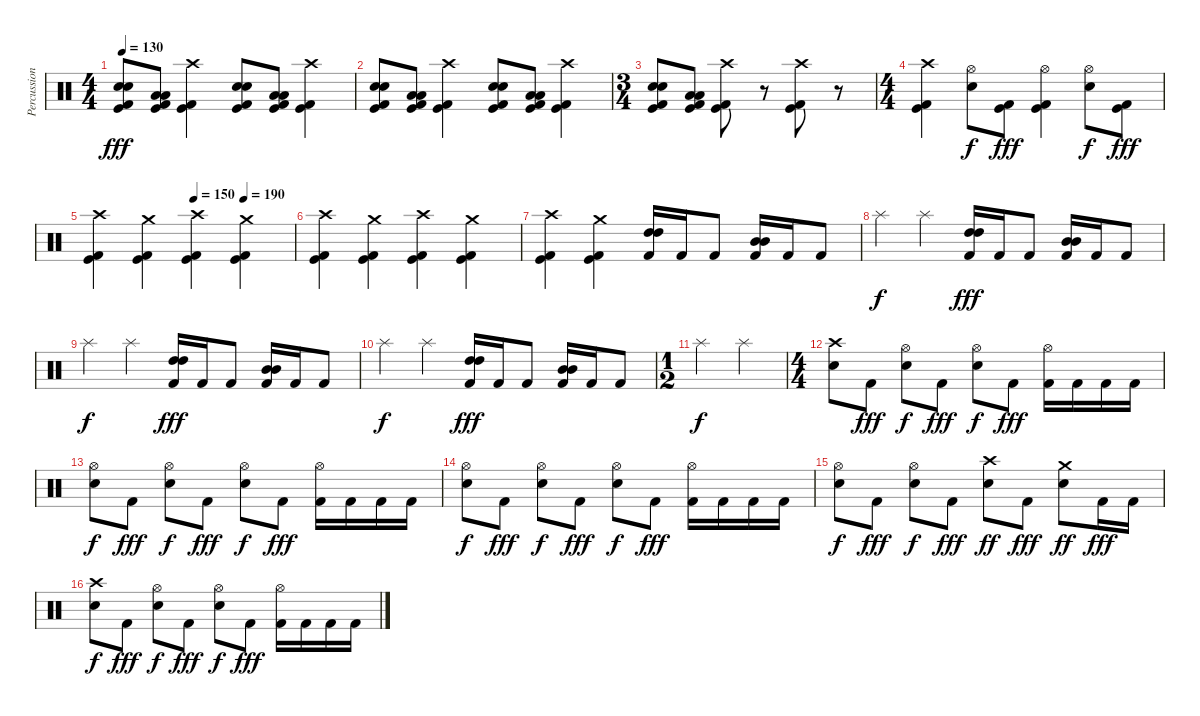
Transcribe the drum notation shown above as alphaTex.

\track ("Percussion" "Percussion") {instrument percussion}
\staff {score}
\articulation defaults
\ts (4 4)
\tempo 130
\clef neutral
\ks c
("Snare (hit) 2" "Snare (hit) 2" "Kick (hit)" "Kick (hit) 2").8{dy fff} ("Low Tom (hit)" "Low Tom (hit)" "Kick (hit)" "Kick (hit) 2").8 ("Crash high (hit)" "Kick (hit)" "Kick (hit) 2").4 ("Snare (hit) 2" "Snare (hit) 2" "Kick (hit)" "Kick (hit) 2").8 ("Low Tom (hit)" "Low Tom (hit)" "Kick (hit)" "Kick (hit) 2").8 ("Crash high (hit)" "Kick (hit)" "Kick (hit) 2").4 |
("Snare (hit) 2" "Snare (hit) 2" "Kick (hit)" "Kick (hit) 2").8 ("Low Tom (hit)" "Low Tom (hit)" "Kick (hit)" "Kick (hit) 2").8 ("Crash high (hit)" "Kick (hit)" "Kick (hit) 2").4 ("Snare (hit) 2" "Snare (hit) 2" "Kick (hit)" "Kick (hit) 2").8 ("Low Tom (hit)" "Low Tom (hit)" "Kick (hit)" "Kick (hit) 2").8 ("Crash high (hit)" "Kick (hit)" "Kick (hit) 2").4 |
\ts (3 4)
("Snare (hit) 2" "Snare (hit) 2" "Kick (hit)" "Kick (hit) 2").8 ("Low Tom (hit)" "Low Tom (hit)" "Kick (hit)" "Kick (hit) 2").8 ("Crash high (hit)" "Kick (hit)" "Kick (hit) 2").8 r.8 ("Crash high (hit)" "Kick (hit) 2" "Kick (hit)").8 r.8 |
\ts (4 4)
("Crash high (hit)" "Kick (hit)" "Kick (hit) 2").4 ("Hi-Hat (open)" "Snare (hit) 2").8{dy f} ("Kick (hit)" "Kick (hit) 2").8{dy fff} ("Hi-Hat (open)" "Kick (hit)" "Kick (hit) 2").4 ("Hi-Hat (open)" "Snare (hit) 2").8{dy f} ("Kick (hit)" "Kick (hit) 2").8{dy fff} |
\tempo (150 0.5)
\tempo (190 0.75)
("Crash high (hit)" "Kick (hit)" "Kick (hit) 2").4 ("Crash medium (hit)" "Kick (hit)" "Kick (hit) 2").4 ("Crash high (hit)" "Kick (hit)" "Kick (hit) 2").4 ("Crash medium (hit)" "Kick (hit)" "Kick (hit) 2").4 |
("Crash high (hit)" "Kick (hit)" "Kick (hit) 2").4 ("Crash medium (hit)" "Kick (hit)" "Kick (hit) 2").4 ("Crash high (hit)" "Kick (hit)" "Kick (hit) 2").4 ("Crash medium (hit)" "Kick (hit)" "Kick (hit) 2").4 |
("Crash high (hit)" "Kick (hit)" "Kick (hit) 2").4 ("Crash medium (hit)" "Kick (hit)" "Kick (hit) 2").4 ("High Tom (hit)" "High Tom (hit)" "Kick (hit) 2").16 "Kick (hit) 2".16 "Kick (hit) 2".8 ("Mid Tom (hit)" "Mid Tom (hit)" "Kick (hit) 2").16 "Kick (hit) 2".16 "Kick (hit) 2".8 |
"Splash (hit)".4{dy f} "Splash (hit)".4 ("High Tom (hit)" "High Tom (hit)" "Kick (hit) 2").16{dy fff} "Kick (hit) 2".16 "Kick (hit) 2".8 ("Mid Tom (hit)" "Mid Tom (hit)" "Kick (hit) 2").16 "Kick (hit) 2".16 "Kick (hit) 2".8 |
"Splash (hit)".4{dy f} "Splash (hit)".4 ("High Tom (hit)" "High Tom (hit)" "Kick (hit) 2").16{dy fff} "Kick (hit) 2".16 "Kick (hit) 2".8 ("Mid Tom (hit)" "Mid Tom (hit)" "Kick (hit) 2").16 "Kick (hit) 2".16 "Kick (hit) 2".8 |
"Splash (hit)".4{dy f} "Splash (hit)".4 ("High Tom (hit)" "High Tom (hit)" "Kick (hit) 2").16{dy fff} "Kick (hit) 2".16 "Kick (hit) 2".8 ("Mid Tom (hit)" "Mid Tom (hit)" "Kick (hit) 2").16 "Kick (hit) 2".16 "Kick (hit) 2".8 |
\ts (1 2)
"Splash (hit)".4{dy f} "Splash (hit)".4 |
\ts (4 4)
("Crash high (hit)" "Electric Snare (hit)").8{volume 13} "Kick (hit) 2".8{dy fff} ("Hi-Hat (open)" "Electric Snare (hit)").8{dy f} "Kick (hit) 2".8{dy fff} ("Hi-Hat (open)" "Electric Snare (hit)").8{dy f} "Kick (hit) 2".8{dy fff} ("Hi-Hat (open)" "Kick (hit) 2").16 "Kick (hit) 2".16 "Kick (hit) 2".16 "Kick (hit) 2".16 |
("Hi-Hat (open)" "Electric Snare (hit)").8{dy f} "Kick (hit) 2".8{dy fff} ("Hi-Hat (open)" "Electric Snare (hit)").8{dy f} "Kick (hit) 2".8{dy fff} ("Hi-Hat (open)" "Electric Snare (hit)").8{dy f} "Kick (hit) 2".8{dy fff} ("Hi-Hat (open)" "Kick (hit) 2").16 "Kick (hit) 2".16 "Kick (hit) 2".16 "Kick (hit) 2".16 |
("Hi-Hat (open)" "Electric Snare (hit)").8{dy f} "Kick (hit) 2".8{dy fff} ("Hi-Hat (open)" "Electric Snare (hit)").8{dy f} "Kick (hit) 2".8{dy fff} ("Hi-Hat (open)" "Electric Snare (hit)").8{dy f} "Kick (hit) 2".8{dy fff} ("Hi-Hat (open)" "Kick (hit) 2").16 "Kick (hit) 2".16 "Kick (hit) 2".16 "Kick (hit) 2".16 |
("Hi-Hat (open)" "Electric Snare (hit)").8{dy f} "Kick (hit) 2".8{dy fff} ("Hi-Hat (open)" "Electric Snare (hit)").8{dy f} "Kick (hit) 2".8{dy fff} ("Crash high (hit)" "Electric Snare (hit)").8{dy ff} "Kick (hit) 2".8{dy fff} ("Crash medium (hit)" "Electric Snare (hit)").8{dy ff} "Kick (hit) 2".16{dy fff} "Kick (hit) 2".16 |
("Crash high (hit)" "Electric Snare (hit)").8{dy f} "Kick (hit) 2".8{dy fff} ("Hi-Hat (open)" "Electric Snare (hit)").8{dy f} "Kick (hit) 2".8{dy fff} ("Hi-Hat (open)" "Electric Snare (hit)").8{dy f} "Kick (hit) 2".8{dy fff} ("Hi-Hat (open)" "Kick (hit) 2").16 "Kick (hit) 2".16 "Kick (hit) 2".16 "Kick (hit) 2".16
